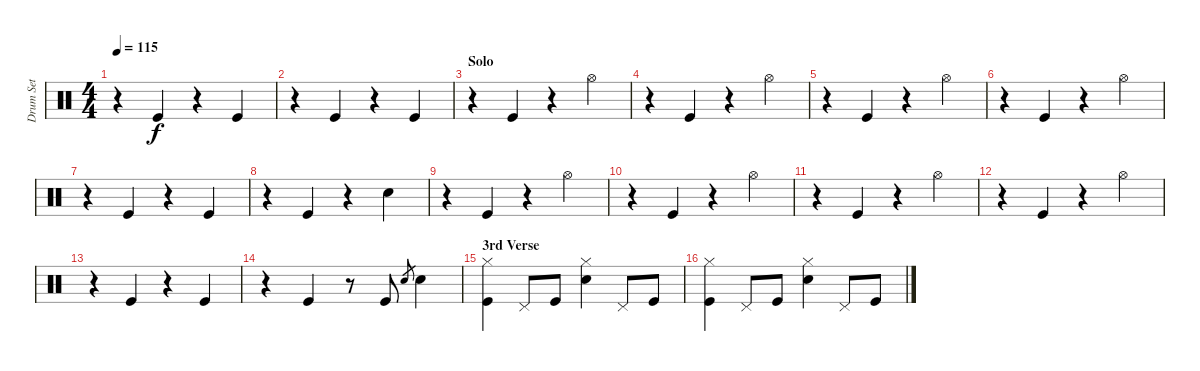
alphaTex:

\track ("Drum Set" "Drum Set") {instrument percussion}
\staff {score}
\articulation defaults
\ts (4 4)
\tempo 115
\clef neutral
\ks c
r.4{dy f} "Kick (hit)".4 r.4 "Kick (hit)".4 |
r.4 "Kick (hit)".4 r.4 "Kick (hit)".4 |
\section ("" "Solo")
r.4 "Kick (hit)".4 r.4 "Hi-Hat (open)".4 |
r.4 "Kick (hit)".4 r.4 "Hi-Hat (open)".4 |
r.4 "Kick (hit)".4 r.4 "Hi-Hat (open)".4 |
r.4 "Kick (hit)".4 r.4 "Hi-Hat (open)".4 |
r.4 "Kick (hit)".4 r.4 "Kick (hit)".4 |
r.4 "Kick (hit)".4 r.4 "Electric Snare (hit)".4 |
r.4 "Kick (hit)".4 r.4 "Hi-Hat (open)".4 |
r.4 "Kick (hit)".4 r.4 "Hi-Hat (open)".4 |
r.4 "Kick (hit)".4 r.4 "Hi-Hat (open)".4 |
r.4 "Kick (hit)".4 r.4 "Hi-Hat (open)".4 |
r.4 "Kick (hit)".4 r.4 "Kick (hit)".4 |
r.4 "Kick (hit)".4 r.8 "Kick (hit)".8 "Electric Snare (hit)".8{gr} "Electric Snare (hit)".4 |
\section ("" "3rd Verse")
("Hi-Hat (closed)" "Kick (hit)").4 "Pedal Hi-Hat (hit)".8 "Kick (hit)".8 ("Hi-Hat (closed)" "Electric Snare (hit)").4 "Pedal Hi-Hat (hit)".8 "Kick (hit)".8 |
("Hi-Hat (closed)" "Kick (hit)").4 "Pedal Hi-Hat (hit)".8 "Kick (hit)".8 ("Hi-Hat (closed)" "Electric Snare (hit)").4 "Pedal Hi-Hat (hit)".8 "Kick (hit)".8
